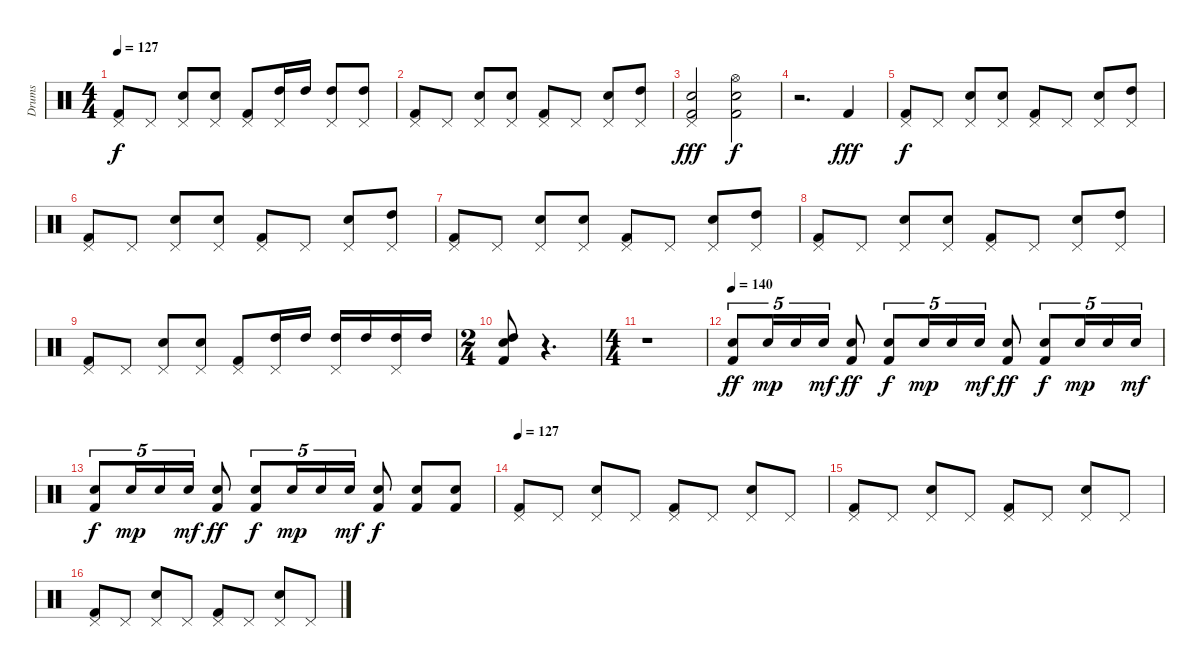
\track ("Drums" "Drums") {instrument percussion}
\staff {score}
\articulation defaults
\ts (4 4)
\tempo 127
\clef neutral
\ks c
("Pedal Hi-Hat (hit)" "Kick (hit) 2").8{dy f} "Pedal Hi-Hat (hit)".8 ("Pedal Hi-Hat (hit)" "Snare (hit) 2").8 ("Pedal Hi-Hat (hit)" "Snare (hit) 2").8 ("Pedal Hi-Hat (hit)" "Kick (hit) 2").8 ("Pedal Hi-Hat (hit)" "High Tom (hit)").16 "High Tom (hit)".16 ("Pedal Hi-Hat (hit)" "High Tom (hit)").8 ("Pedal Hi-Hat (hit)" "High Tom (hit)").8 |
("Pedal Hi-Hat (hit)" "Kick (hit) 2").8 "Pedal Hi-Hat (hit)".8 ("Pedal Hi-Hat (hit)" "Snare (hit) 2").8 ("Pedal Hi-Hat (hit)" "Snare (hit) 2").8 ("Pedal Hi-Hat (hit)" "Kick (hit) 2").8 "Pedal Hi-Hat (hit)".8 ("Pedal Hi-Hat (hit)" "Snare (hit) 2").8 ("Pedal Hi-Hat (hit)" "High Tom (hit)").8 |
("Pedal Hi-Hat (hit)" "Snare (hit) 2" "Kick (hit) 2").2{dy fff} ("Hi-Hat (open)" "Snare (hit) 2" "Kick (hit) 2").2{dy f} |
r.2{d} "Kick (hit) 2".4{dy fff} |
("Pedal Hi-Hat (hit)" "Kick (hit) 2").8{dy f} "Pedal Hi-Hat (hit)".8 ("Pedal Hi-Hat (hit)" "Snare (hit) 2").8 ("Pedal Hi-Hat (hit)" "Snare (hit) 2").8 ("Pedal Hi-Hat (hit)" "Kick (hit) 2").8 "Pedal Hi-Hat (hit)".8 ("Pedal Hi-Hat (hit)" "Snare (hit) 2").8 ("Pedal Hi-Hat (hit)" "High Tom (hit)").8 |
("Pedal Hi-Hat (hit)" "Kick (hit) 2").8 "Pedal Hi-Hat (hit)".8 ("Pedal Hi-Hat (hit)" "Snare (hit) 2").8 ("Pedal Hi-Hat (hit)" "Snare (hit) 2").8 ("Pedal Hi-Hat (hit)" "Kick (hit) 2").8 "Pedal Hi-Hat (hit)".8 ("Pedal Hi-Hat (hit)" "Snare (hit) 2").8 ("Pedal Hi-Hat (hit)" "High Tom (hit)").8 |
("Pedal Hi-Hat (hit)" "Kick (hit) 2").8 "Pedal Hi-Hat (hit)".8 ("Pedal Hi-Hat (hit)" "Snare (hit) 2").8 ("Pedal Hi-Hat (hit)" "Snare (hit) 2").8 ("Pedal Hi-Hat (hit)" "Kick (hit) 2").8 "Pedal Hi-Hat (hit)".8 ("Pedal Hi-Hat (hit)" "Snare (hit) 2").8 ("Pedal Hi-Hat (hit)" "High Tom (hit)").8 |
("Pedal Hi-Hat (hit)" "Kick (hit) 2").8 "Pedal Hi-Hat (hit)".8 ("Pedal Hi-Hat (hit)" "Snare (hit) 2").8 ("Pedal Hi-Hat (hit)" "Snare (hit) 2").8 ("Pedal Hi-Hat (hit)" "Kick (hit) 2").8 "Pedal Hi-Hat (hit)".8 ("Pedal Hi-Hat (hit)" "Snare (hit) 2").8 ("Pedal Hi-Hat (hit)" "High Tom (hit)").8 |
("Pedal Hi-Hat (hit)" "Kick (hit) 2").8 "Pedal Hi-Hat (hit)".8 ("Pedal Hi-Hat (hit)" "Snare (hit) 2").8 ("Pedal Hi-Hat (hit)" "Snare (hit) 2").8 ("Pedal Hi-Hat (hit)" "Kick (hit) 2").8 ("Pedal Hi-Hat (hit)" "High Tom (hit)").16 "High Tom (hit)".16 ("Pedal Hi-Hat (hit)" "High Tom (hit)").16 "High Tom (hit)".16 ("Pedal Hi-Hat (hit)" "High Tom (hit)").16 "High Tom (hit)".16 |
\ts (2 4)
("High Tom (hit)" "Snare (hit) 2" "Kick (hit) 2").8 r.4{d} |
\ts (4 4)
r.1 |
\tempo 140
("Snare (hit) 2" "Kick (hit) 2").8{tu (5 4) dy ff} "Electric Snare (hit)".16{tu (5 4) dy mp} "Electric Snare (hit)".16{tu (5 4)} "Snare (hit) 2".16{tu (5 4) dy mf} ("Snare (hit) 2" "Kick (hit) 2").8{dy ff} ("Snare (hit) 2" "Kick (hit) 2").8{tu (5 4) dy f} "Electric Snare (hit)".16{tu (5 4) dy mp} "Electric Snare (hit)".16{tu (5 4)} "Snare (hit) 2".16{tu (5 4) dy mf} ("Snare (hit) 2" "Kick (hit) 2").8{dy ff} ("Snare (hit) 2" "Kick (hit) 2").8{tu (5 4) dy f} "Electric Snare (hit)".16{tu (5 4) dy mp} "Electric Snare (hit)".16{tu (5 4)} "Snare (hit) 2".16{tu (5 4) dy mf} |
("Snare (hit) 2" "Kick (hit) 2").8{tu (5 4) dy f} "Electric Snare (hit)".16{tu (5 4) dy mp} "Electric Snare (hit)".16{tu (5 4)} "Snare (hit) 2".16{tu (5 4) dy mf} ("Snare (hit) 2" "Kick (hit) 2").8{dy ff} ("Snare (hit) 2" "Kick (hit) 2").8{tu (5 4) dy f} "Electric Snare (hit)".16{tu (5 4) dy mp} "Electric Snare (hit)".16{tu (5 4)} "Snare (hit) 2".16{tu (5 4) dy mf} ("Snare (hit) 2" "Kick (hit) 2").8{dy f} ("Snare (hit) 2" "Kick (hit) 2").8 ("Snare (hit) 2" "Kick (hit) 2").8 |
\tempo 127
("Pedal Hi-Hat (hit)" "Kick (hit) 2").8 "Pedal Hi-Hat (hit)".8 ("Pedal Hi-Hat (hit)" "Snare (hit) 2").8 "Pedal Hi-Hat (hit)".8 ("Pedal Hi-Hat (hit)" "Kick (hit) 2").8 "Pedal Hi-Hat (hit)".8 ("Pedal Hi-Hat (hit)" "Snare (hit) 2").8 "Pedal Hi-Hat (hit)".8 |
("Pedal Hi-Hat (hit)" "Kick (hit) 2").8 "Pedal Hi-Hat (hit)".8 ("Pedal Hi-Hat (hit)" "Snare (hit) 2").8 "Pedal Hi-Hat (hit)".8 ("Pedal Hi-Hat (hit)" "Kick (hit) 2").8 "Pedal Hi-Hat (hit)".8 ("Pedal Hi-Hat (hit)" "Snare (hit) 2").8 "Pedal Hi-Hat (hit)".8 |
("Pedal Hi-Hat (hit)" "Kick (hit) 2").8 "Pedal Hi-Hat (hit)".8 ("Pedal Hi-Hat (hit)" "Snare (hit) 2").8 "Pedal Hi-Hat (hit)".8 ("Pedal Hi-Hat (hit)" "Kick (hit) 2").8 "Pedal Hi-Hat (hit)".8 ("Pedal Hi-Hat (hit)" "Snare (hit) 2").8 "Pedal Hi-Hat (hit)".8
